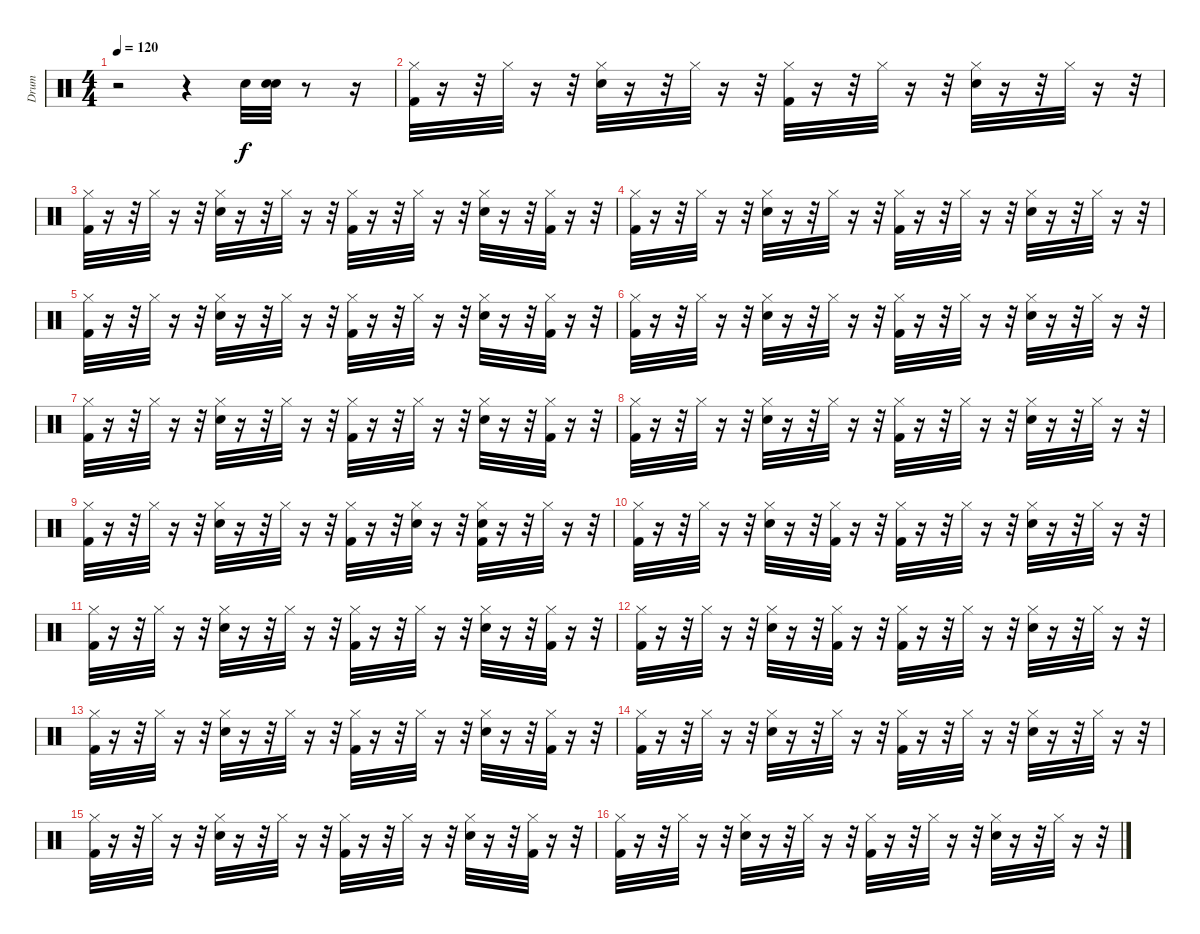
\track ("Drum" "Drum") {instrument percussion}
\staff {score}
\articulation defaults
\ts (4 4)
\tempo 120
\clef neutral
\ks c
r.2{dy f} r.4 "Snare (hit) 2".32 ("Snare (hit)" "Snare (hit) 2").32 r.8 r.16 |
("Kick (hit) 2" "Hi-Hat (closed)").32 r.16 r.32 "Hi-Hat (closed)".32 r.16 r.32 ("Snare (hit) 2" "Hi-Hat (closed)").32 r.16 r.32 "Hi-Hat (closed)".32 r.16 r.32 ("Kick (hit) 2" "Hi-Hat (closed)").32 r.16 r.32 "Hi-Hat (closed)".32 r.16 r.32 ("Snare (hit) 2" "Hi-Hat (closed)").32 r.16 r.32 "Hi-Hat (closed)".32 r.16 r.32 |
("Kick (hit) 2" "Hi-Hat (closed)").32 r.16 r.32 "Hi-Hat (closed)".32 r.16 r.32 ("Snare (hit) 2" "Hi-Hat (closed)").32 r.16 r.32 "Hi-Hat (closed)".32 r.16 r.32 ("Kick (hit) 2" "Hi-Hat (closed)").32 r.16 r.32 "Hi-Hat (closed)".32 r.16 r.32 ("Snare (hit) 2" "Hi-Hat (closed)").32 r.16 r.32 ("Kick (hit) 2" "Hi-Hat (closed)").32 r.16 r.32 |
("Kick (hit) 2" "Hi-Hat (closed)").32 r.16 r.32 "Hi-Hat (closed)".32 r.16 r.32 ("Snare (hit) 2" "Hi-Hat (closed)").32 r.16 r.32 "Hi-Hat (closed)".32 r.16 r.32 ("Kick (hit) 2" "Hi-Hat (closed)").32 r.16 r.32 "Hi-Hat (closed)".32 r.16 r.32 ("Snare (hit) 2" "Hi-Hat (closed)").32 r.16 r.32 "Hi-Hat (closed)".32 r.16 r.32 |
("Kick (hit) 2" "Hi-Hat (closed)").32 r.16 r.32 "Hi-Hat (closed)".32 r.16 r.32 ("Snare (hit) 2" "Hi-Hat (closed)").32 r.16 r.32 "Hi-Hat (closed)".32 r.16 r.32 ("Kick (hit) 2" "Hi-Hat (closed)").32 r.16 r.32 "Hi-Hat (closed)".32 r.16 r.32 ("Snare (hit) 2" "Hi-Hat (closed)").32 r.16 r.32 ("Kick (hit) 2" "Hi-Hat (closed)").32 r.16 r.32 |
("Kick (hit) 2" "Hi-Hat (closed)").32 r.16 r.32 "Hi-Hat (closed)".32 r.16 r.32 ("Snare (hit) 2" "Hi-Hat (closed)").32 r.16 r.32 "Hi-Hat (closed)".32 r.16 r.32 ("Kick (hit) 2" "Hi-Hat (closed)").32 r.16 r.32 "Hi-Hat (closed)".32 r.16 r.32 ("Snare (hit) 2" "Hi-Hat (closed)").32 r.16 r.32 "Hi-Hat (closed)".32 r.16 r.32 |
("Kick (hit) 2" "Hi-Hat (closed)").32 r.16 r.32 "Hi-Hat (closed)".32 r.16 r.32 ("Snare (hit) 2" "Hi-Hat (closed)").32 r.16 r.32 "Hi-Hat (closed)".32 r.16 r.32 ("Kick (hit) 2" "Hi-Hat (closed)").32 r.16 r.32 "Hi-Hat (closed)".32 r.16 r.32 ("Snare (hit) 2" "Hi-Hat (closed)").32 r.16 r.32 ("Kick (hit) 2" "Hi-Hat (closed)").32 r.16 r.32 |
("Kick (hit) 2" "Hi-Hat (closed)").32 r.16 r.32 "Hi-Hat (closed)".32 r.16 r.32 ("Snare (hit) 2" "Hi-Hat (closed)").32 r.16 r.32 "Hi-Hat (closed)".32 r.16 r.32 ("Kick (hit) 2" "Hi-Hat (closed)").32 r.16 r.32 "Hi-Hat (closed)".32 r.16 r.32 ("Snare (hit) 2" "Hi-Hat (closed)").32 r.16 r.32 "Hi-Hat (closed)".32 r.16 r.32 |
("Kick (hit) 2" "Hi-Hat (closed)").32 r.16 r.32 "Hi-Hat (closed)".32 r.16 r.32 ("Snare (hit) 2" "Hi-Hat (closed)").32 r.16 r.32 "Hi-Hat (closed)".32 r.16 r.32 ("Kick (hit) 2" "Hi-Hat (closed)").32 r.16 r.32 ("Snare (hit) 2" "Hi-Hat (closed)").32 r.16 r.32 ("Kick (hit) 2" "Snare (hit) 2" "Hi-Hat (closed)").32 r.16 r.32 "Hi-Hat (closed)".32 r.16 r.32 |
("Kick (hit) 2" "Hi-Hat (closed)").32 r.16 r.32 "Hi-Hat (closed)".32 r.16 r.32 ("Snare (hit) 2" "Hi-Hat (closed)").32 r.16 r.32 ("Kick (hit) 2" "Hi-Hat (closed)").32 r.16 r.32 ("Kick (hit) 2" "Hi-Hat (closed)").32 r.16 r.32 "Hi-Hat (closed)".32 r.16 r.32 ("Snare (hit) 2" "Hi-Hat (closed)").32 r.16 r.32 "Hi-Hat (closed)".32 r.16 r.32 |
("Kick (hit) 2" "Hi-Hat (closed)").32 r.16 r.32 "Hi-Hat (closed)".32 r.16 r.32 ("Snare (hit) 2" "Hi-Hat (closed)").32 r.16 r.32 "Hi-Hat (closed)".32 r.16 r.32 ("Kick (hit) 2" "Hi-Hat (closed)").32 r.16 r.32 "Hi-Hat (closed)".32 r.16 r.32 ("Snare (hit) 2" "Hi-Hat (closed)").32 r.16 r.32 ("Kick (hit) 2" "Hi-Hat (closed)").32 r.16 r.32 |
("Kick (hit) 2" "Hi-Hat (closed)").32 r.16 r.32 "Hi-Hat (closed)".32 r.16 r.32 ("Snare (hit) 2" "Hi-Hat (closed)").32 r.16 r.32 ("Kick (hit) 2" "Hi-Hat (closed)").32 r.16 r.32 ("Kick (hit) 2" "Hi-Hat (closed)").32 r.16 r.32 "Hi-Hat (closed)".32 r.16 r.32 ("Snare (hit) 2" "Hi-Hat (closed)").32 r.16 r.32 "Hi-Hat (closed)".32 r.16 r.32 |
("Kick (hit) 2" "Hi-Hat (closed)").32 r.16 r.32 "Hi-Hat (closed)".32 r.16 r.32 ("Snare (hit) 2" "Hi-Hat (closed)").32 r.16 r.32 "Hi-Hat (closed)".32 r.16 r.32 ("Kick (hit) 2" "Hi-Hat (closed)").32 r.16 r.32 "Hi-Hat (closed)".32 r.16 r.32 ("Snare (hit) 2" "Hi-Hat (closed)").32 r.16 r.32 ("Kick (hit) 2" "Hi-Hat (closed)").32 r.16 r.32 |
("Kick (hit) 2" "Hi-Hat (closed)").32 r.16 r.32 "Hi-Hat (closed)".32 r.16 r.32 ("Snare (hit) 2" "Hi-Hat (closed)").32 r.16 r.32 "Hi-Hat (closed)".32 r.16 r.32 ("Kick (hit) 2" "Hi-Hat (closed)").32 r.16 r.32 "Hi-Hat (closed)".32 r.16 r.32 ("Snare (hit) 2" "Hi-Hat (closed)").32 r.16 r.32 "Hi-Hat (closed)".32 r.16 r.32 |
("Kick (hit) 2" "Hi-Hat (closed)").32 r.16 r.32 "Hi-Hat (closed)".32 r.16 r.32 ("Snare (hit) 2" "Hi-Hat (closed)").32 r.16 r.32 "Hi-Hat (closed)".32 r.16 r.32 ("Kick (hit) 2" "Hi-Hat (closed)").32 r.16 r.32 "Hi-Hat (closed)".32 r.16 r.32 ("Snare (hit) 2" "Hi-Hat (closed)").32 r.16 r.32 ("Kick (hit) 2" "Hi-Hat (closed)").32 r.16 r.32 |
("Kick (hit) 2" "Hi-Hat (closed)").32 r.16 r.32 "Hi-Hat (closed)".32 r.16 r.32 ("Snare (hit) 2" "Hi-Hat (closed)").32 r.16 r.32 "Hi-Hat (closed)".32 r.16 r.32 ("Kick (hit) 2" "Hi-Hat (closed)").32 r.16 r.32 "Hi-Hat (closed)".32 r.16 r.32 ("Snare (hit) 2" "Hi-Hat (closed)").32 r.16 r.32 "Hi-Hat (closed)".32 r.16 r.32
